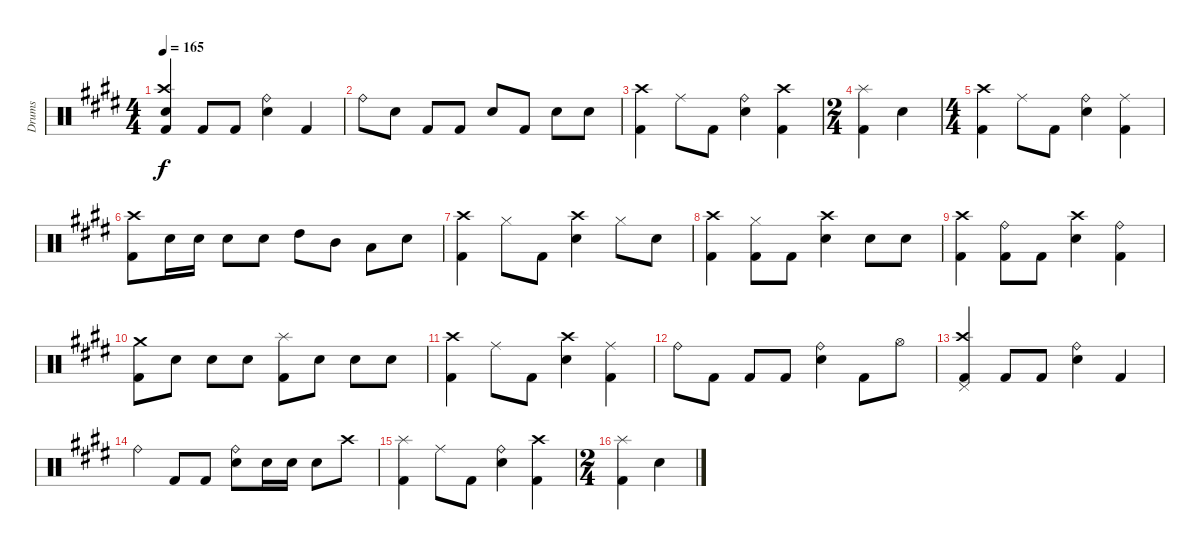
\track ("Drums" "Drums") {instrument percussion}
\staff {score}
\articulation defaults
\ts (4 4)
\tempo 165
\clef neutral
\ks e
("Kick (hit) 2" "Crash high (hit)" "Electric Snare (hit)").4{dy f} "Kick (hit) 2".8 "Kick (hit) 2".8 ("Ride (bell)" "Electric Snare (hit)").4 "Kick (hit) 2".4 |
"Ride (bell)".8 "Electric Snare (hit)".8 "Kick (hit) 2".8 "Kick (hit) 2".8 "Electric Snare (hit)".8 "Kick (hit) 2".8 "Electric Snare (hit)".8 "Electric Snare (hit)".8 |
("Kick (hit) 2" "Crash high (hit)").4 "Ride (middle)".8 "Kick (hit) 2".8 ("Electric Snare (hit)" "Ride (bell)").4 ("Kick (hit) 2" "Crash high (hit)").4 |
\ts (2 4)
("Splash (hit)" "Kick (hit) 2").4 "Electric Snare (hit)".4 |
\ts (4 4)
("Kick (hit) 2" "Crash high (hit)").4 "Ride (middle)".8 "Kick (hit) 2".8 ("Electric Snare (hit)" "Ride (bell)").4 ("Kick (hit) 2" "Ride (middle)").4 |
("Crash high (hit)" "Kick (hit) 2").8 "Electric Snare (hit)".16 "Electric Snare (hit)".16 "Electric Snare (hit)".8 "Electric Snare (hit)".8 "High Tom (hit)".8 "Mid Tom (hit)".8 "Low Tom (hit)".8 "Electric Snare (hit)".8 |
("Kick (hit) 2" "Crash high (hit)").4 "Hi-Hat (closed)".8 "Kick (hit) 2".8 ("Electric Snare (hit)" "Crash high (hit)").4 "Hi-Hat (closed)".8 "Electric Snare (hit)".8 |
("Kick (hit) 2" "Crash high (hit)").4 ("Hi-Hat (closed)" "Kick (hit) 2").8 "Kick (hit) 2".8 ("Electric Snare (hit)" "Crash high (hit)").4 "Electric Snare (hit)".8 "Electric Snare (hit)".8 |
("Kick (hit) 2" "Crash high (hit)").4 ("Kick (hit) 2" "Ride (bell)").8 "Kick (hit) 2".8 ("Electric Snare (hit)" "Crash high (hit)").4 ("Kick (hit) 2" "Ride (bell)").4 |
("Kick (hit) 2" "Crash medium (hit)").8 "Electric Snare (hit)".8 "Electric Snare (hit)".8 "Electric Snare (hit)".8 ("Kick (hit) 2" "Splash (hit)").8 "Electric Snare (hit)".8 "Electric Snare (hit)".8 "Electric Snare (hit)".8 |
("Kick (hit) 2" "Crash high (hit)").4 "Ride (middle)".8 "Kick (hit) 2".8 ("Electric Snare (hit)" "Crash high (hit)").4 ("Kick (hit) 2" "Ride (middle)").4 |
"Ride (bell)".8 "Kick (hit) 2".8 "Kick (hit) 2".8 "Kick (hit) 2".8 ("Electric Snare (hit)" "Ride (bell)").4 "Kick (hit) 2".8 "Hi-Hat (open)".8 |
("Kick (hit) 2" "Crash high (hit)" "Pedal Hi-Hat (hit)").4 "Kick (hit) 2".8 "Kick (hit) 2".8 ("Electric Snare (hit)" "Ride (bell)").4 "Kick (hit) 2".4 |
"Ride (bell)".4 "Kick (hit) 2".8 "Kick (hit) 2".8 ("Electric Snare (hit)" "Ride (bell)").8 "Electric Snare (hit)".16 "Electric Snare (hit)".16 "Electric Snare (hit)".8 "Crash high (hit)".8 |
("Splash (hit)" "Kick (hit) 2").4 "Ride (middle)".8 "Kick (hit) 2".8 ("Electric Snare (hit)" "Ride (bell)").4 ("Kick (hit) 2" "Crash high (hit)").4 |
\ts (2 4)
("Kick (hit) 2" "Splash (hit)").4 "Electric Snare (hit)".4
